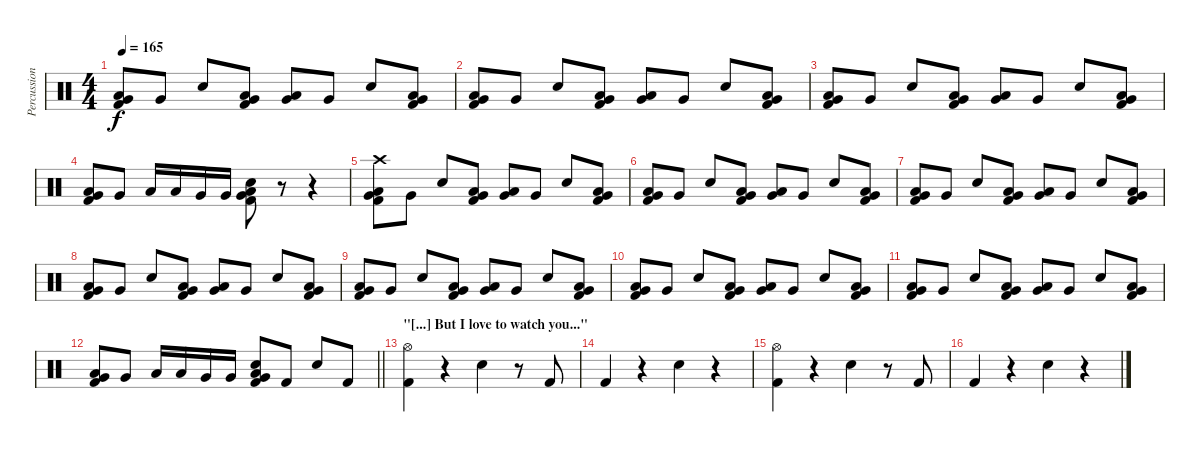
\track ("Percussion" "Percussion") {instrument percussion}
\staff {score}
\articulation defaults
\ts (4 4)
\tempo 165
\clef neutral
\ks c
("Low Tom (hit)" "Very Low Tom (hit)" "Kick (hit) 2").8{dy f} "Very Low Tom (hit)".8 "Electric Snare (hit)".8 ("Low Tom (hit)" "Very Low Tom (hit)" "Kick (hit) 2").8 ("Low Tom (hit)" "Very Low Tom (hit)").8 "Very Low Tom (hit)".8 "Electric Snare (hit)".8 ("Low Tom (hit)" "Very Low Tom (hit)" "Kick (hit) 2").8 |
("Low Tom (hit)" "Very Low Tom (hit)" "Kick (hit) 2").8 "Very Low Tom (hit)".8 "Electric Snare (hit)".8 ("Low Tom (hit)" "Very Low Tom (hit)" "Kick (hit) 2").8 ("Low Tom (hit)" "Very Low Tom (hit)").8 "Very Low Tom (hit)".8 "Electric Snare (hit)".8 ("Low Tom (hit)" "Very Low Tom (hit)" "Kick (hit) 2").8 |
("Low Tom (hit)" "Very Low Tom (hit)" "Kick (hit) 2").8 "Very Low Tom (hit)".8 "Electric Snare (hit)".8 ("Low Tom (hit)" "Very Low Tom (hit)" "Kick (hit) 2").8 ("Low Tom (hit)" "Very Low Tom (hit)").8 "Very Low Tom (hit)".8 "Electric Snare (hit)".8 ("Low Tom (hit)" "Very Low Tom (hit)" "Kick (hit) 2").8 |
("Low Tom (hit)" "Very Low Tom (hit)" "Kick (hit) 2").8 "Very Low Tom (hit)".8 "Low Tom (hit)".16 "Low Tom (hit)".16 "Very Low Tom (hit)".16 "Very Low Tom (hit)".16 ("Electric Snare (hit)" "Low Tom (hit)" "Very Low Tom (hit)" "Kick (hit) 2").8 r.8 r.4 |
("Crash high (hit)" "Low Tom (hit)" "Very Low Tom (hit)" "Kick (hit) 2").8 "Very Low Tom (hit)".8 "Electric Snare (hit)".8 ("Low Tom (hit)" "Very Low Tom (hit)" "Kick (hit) 2").8 ("Low Tom (hit)" "Very Low Tom (hit)").8 "Very Low Tom (hit)".8 "Electric Snare (hit)".8 ("Low Tom (hit)" "Very Low Tom (hit)" "Kick (hit) 2").8 |
("Low Tom (hit)" "Very Low Tom (hit)" "Kick (hit) 2").8 "Very Low Tom (hit)".8 "Electric Snare (hit)".8 ("Low Tom (hit)" "Very Low Tom (hit)" "Kick (hit) 2").8 ("Low Tom (hit)" "Very Low Tom (hit)").8 "Very Low Tom (hit)".8 "Electric Snare (hit)".8 ("Low Tom (hit)" "Very Low Tom (hit)" "Kick (hit) 2").8 |
("Low Tom (hit)" "Very Low Tom (hit)" "Kick (hit) 2").8 "Very Low Tom (hit)".8 "Electric Snare (hit)".8 ("Low Tom (hit)" "Very Low Tom (hit)" "Kick (hit) 2").8 ("Low Tom (hit)" "Very Low Tom (hit)").8 "Very Low Tom (hit)".8 "Electric Snare (hit)".8 ("Low Tom (hit)" "Very Low Tom (hit)" "Kick (hit) 2").8 |
("Low Tom (hit)" "Very Low Tom (hit)" "Kick (hit) 2").8 "Very Low Tom (hit)".8 "Electric Snare (hit)".8 ("Low Tom (hit)" "Very Low Tom (hit)" "Kick (hit) 2").8 ("Low Tom (hit)" "Very Low Tom (hit)").8 "Very Low Tom (hit)".8 "Electric Snare (hit)".8 ("Low Tom (hit)" "Very Low Tom (hit)" "Kick (hit) 2").8 |
("Low Tom (hit)" "Very Low Tom (hit)" "Kick (hit) 2").8 "Very Low Tom (hit)".8 "Electric Snare (hit)".8 ("Low Tom (hit)" "Very Low Tom (hit)" "Kick (hit) 2").8 ("Low Tom (hit)" "Very Low Tom (hit)").8 "Very Low Tom (hit)".8 "Electric Snare (hit)".8 ("Low Tom (hit)" "Very Low Tom (hit)" "Kick (hit) 2").8 |
("Low Tom (hit)" "Very Low Tom (hit)" "Kick (hit) 2").8 "Very Low Tom (hit)".8 "Electric Snare (hit)".8 ("Low Tom (hit)" "Very Low Tom (hit)" "Kick (hit) 2").8 ("Low Tom (hit)" "Very Low Tom (hit)").8 "Very Low Tom (hit)".8 "Electric Snare (hit)".8 ("Low Tom (hit)" "Very Low Tom (hit)" "Kick (hit) 2").8 |
("Low Tom (hit)" "Very Low Tom (hit)" "Kick (hit) 2").8 "Very Low Tom (hit)".8 "Electric Snare (hit)".8 ("Low Tom (hit)" "Very Low Tom (hit)" "Kick (hit) 2").8 ("Low Tom (hit)" "Very Low Tom (hit)").8 "Very Low Tom (hit)".8 "Electric Snare (hit)".8 ("Low Tom (hit)" "Very Low Tom (hit)" "Kick (hit) 2").8 |
\barLineRight lightlight
("Low Tom (hit)" "Very Low Tom (hit)" "Kick (hit) 2").8 "Very Low Tom (hit)".8 "Low Tom (hit)".16 "Low Tom (hit)".16 "Very Low Tom (hit)".16 "Very Low Tom (hit)".16 ("Electric Snare (hit)" "Low Tom (hit)" "Very Low Tom (hit)" "Kick (hit) 2").8 "Kick (hit) 2".8 "Electric Snare (hit)".8 "Kick (hit) 2".8 |
\section ("" "\"[...] But I love to watch you...\"")
("Hi-Hat (open)" "Kick (hit) 2").4 r.4 "Electric Snare (hit)".4 r.8 "Kick (hit) 2".8 |
"Kick (hit) 2".4 r.4 "Electric Snare (hit)".4 r.4 |
("Hi-Hat (open)" "Kick (hit) 2").4 r.4 "Electric Snare (hit)".4 r.8 "Kick (hit) 2".8 |
"Kick (hit) 2".4 r.4 "Electric Snare (hit)".4 r.4
